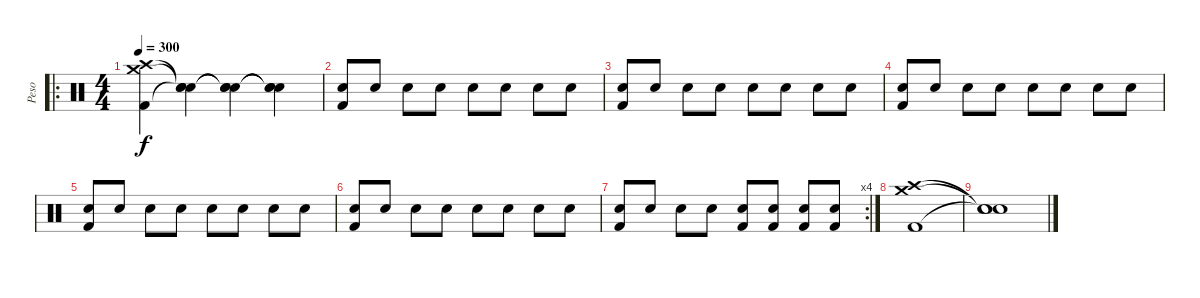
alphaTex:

\track ("Peso" "Peso") {instrument percussion}
\staff {score}
\articulation defaults
\ro
\ts (4 4)
\tempo 300
\clef neutral
\ks c
("Crash high (hit)" "Crash medium (hit)" "Kick (hit) 2").4{dy f volume 13} ("Snare (hit)"{t} "Snare (hit)"{t} "Snare (hit)"{t}).4 ("Snare (hit)"{t} "Snare (hit)"{t} "Snare (hit)"{t}).4 ("Snare (hit)"{t} "Snare (hit)"{t} "Snare (hit)"{t}).4 |
("Snare (hit) 2" "Kick (hit) 2").8{volume 3} "Snare (hit) 2".8 "Snare (hit) 2".8 "Snare (hit) 2".8 "Snare (hit) 2".8 "Snare (hit) 2".8 "Snare (hit) 2".8 "Snare (hit) 2".8 |
("Snare (hit) 2" "Kick (hit) 2").8{volume 7} "Snare (hit) 2".8 "Snare (hit) 2".8 "Snare (hit) 2".8 "Snare (hit) 2".8 "Snare (hit) 2".8 "Snare (hit) 2".8 "Snare (hit) 2".8 |
("Snare (hit) 2" "Kick (hit) 2").8{volume 7} "Snare (hit) 2".8 "Snare (hit) 2".8 "Snare (hit) 2".8 "Snare (hit) 2".8 "Snare (hit) 2".8 "Snare (hit) 2".8 "Snare (hit) 2".8 |
("Snare (hit) 2" "Kick (hit) 2").8{volume 7} "Snare (hit) 2".8 "Snare (hit) 2".8 "Snare (hit) 2".8 "Snare (hit) 2".8 "Snare (hit) 2".8 "Snare (hit) 2".8 "Snare (hit) 2".8 |
("Snare (hit) 2" "Kick (hit) 2").8 "Snare (hit) 2".8{volume 7} "Snare (hit) 2".8 "Snare (hit) 2".8 "Snare (hit) 2".8 "Snare (hit) 2".8 "Snare (hit) 2".8 "Snare (hit) 2".8 |
\rc 4
("Snare (hit) 2" "Kick (hit) 2").8{volume 7} "Snare (hit) 2".8 "Snare (hit) 2".8 "Snare (hit) 2".8 ("Snare (hit) 2" "Kick (hit) 2").8 ("Snare (hit) 2" "Kick (hit) 2").8 ("Snare (hit) 2" "Kick (hit) 2").8 ("Snare (hit) 2" "Kick (hit) 2").8 |
("Crash medium (hit)" "Crash high (hit)" "Kick (hit) 2").1{volume 16} |
("Snare (hit)"{t} "Snare (hit)"{t} "Snare (hit)"{t}).1
